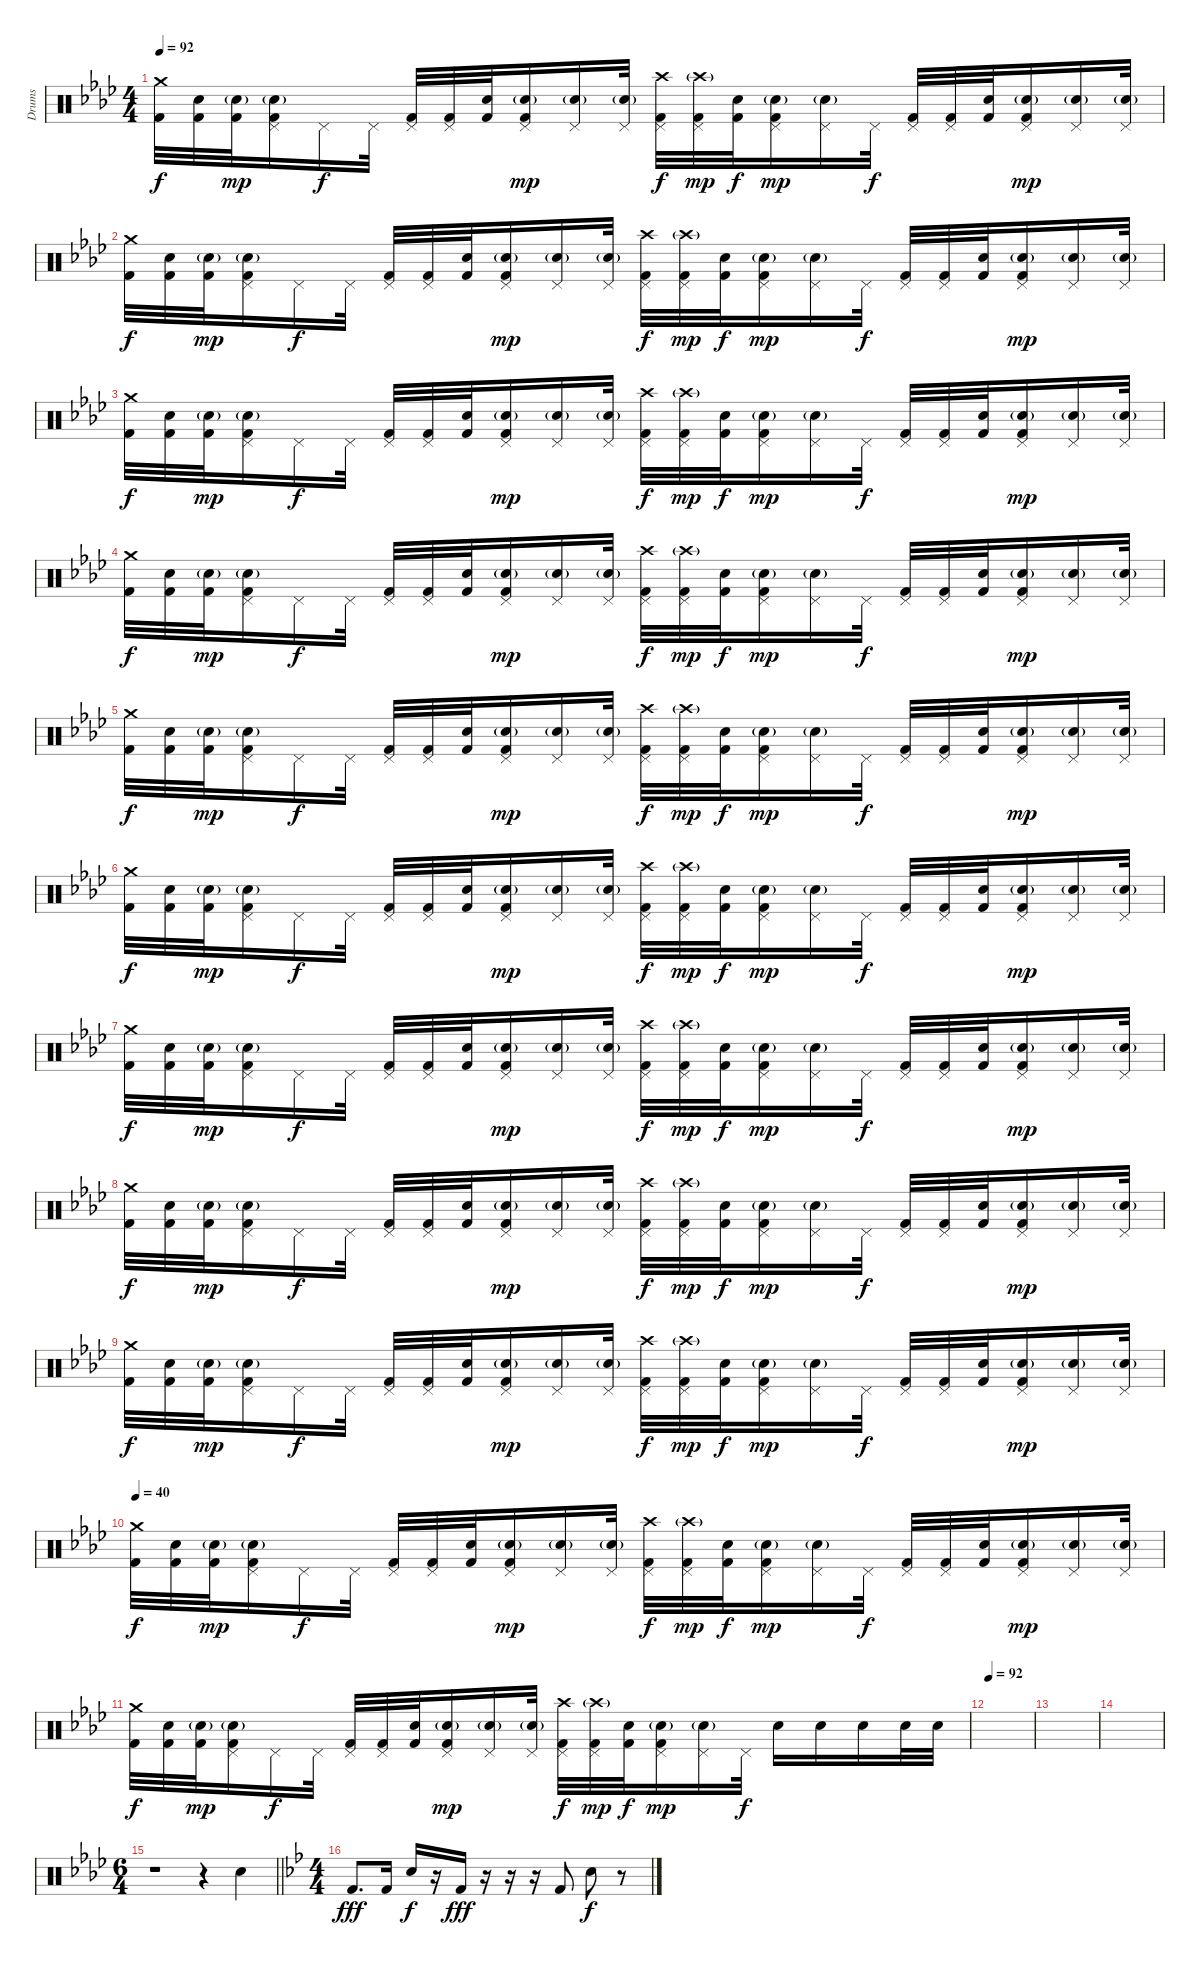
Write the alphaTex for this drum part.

\track ("Drums" "Drums") {instrument percussion}
\staff {score}
\articulation defaults
\ts (4 4)
\tempo 92
\clef neutral
\ks fminor
("Crash medium (hit)" "Kick (hit) 2").32{dy f} ("Snare (hit) 2" "Kick (hit) 2").32 ("Snare (hit) 2"{g} "Kick (hit) 2").32{dy mp} ("Pedal Hi-Hat (hit)" "Snare (hit) 2"{g} "Kick (hit) 2").16 "Pedal Hi-Hat (hit)".16{dy f} "Pedal Hi-Hat (hit)".32 ("Pedal Hi-Hat (hit)" "Kick (hit) 2").32 ("Pedal Hi-Hat (hit)" "Kick (hit) 2").32 ("Snare (hit) 2" "Kick (hit) 2").32 ("Pedal Hi-Hat (hit)" "Snare (hit) 2"{g} "Kick (hit) 2").16{dy mp} ("Pedal Hi-Hat (hit)" "Snare (hit) 2"{g}).16 ("Pedal Hi-Hat (hit)" "Snare (hit) 2"{g}).32 ("Crash high (hit)" "Pedal Hi-Hat (hit)" "Kick (hit) 2").32{dy f} ("Crash high (hit)"{g} "Pedal Hi-Hat (hit)" "Kick (hit) 2").32{dy mp} ("Snare (hit) 2" "Kick (hit) 2").32{dy f} ("Pedal Hi-Hat (hit)" "Snare (hit) 2"{g} "Kick (hit) 2").16{dy mp} ("Pedal Hi-Hat (hit)" "Snare (hit) 2"{g}).16 "Pedal Hi-Hat (hit)".32{dy f} ("Pedal Hi-Hat (hit)" "Kick (hit) 2").32 ("Pedal Hi-Hat (hit)" "Kick (hit) 2").32 ("Snare (hit) 2" "Kick (hit) 2").32 ("Pedal Hi-Hat (hit)" "Snare (hit) 2"{g} "Kick (hit) 2").16{dy mp} ("Pedal Hi-Hat (hit)" "Snare (hit) 2"{g}).16 ("Pedal Hi-Hat (hit)" "Snare (hit) 2"{g}).32 |
("Crash medium (hit)" "Kick (hit) 2").32{dy f} ("Snare (hit) 2" "Kick (hit) 2").32 ("Snare (hit) 2"{g} "Kick (hit) 2").32{dy mp} ("Pedal Hi-Hat (hit)" "Snare (hit) 2"{g} "Kick (hit) 2").16 "Pedal Hi-Hat (hit)".16{dy f} "Pedal Hi-Hat (hit)".32 ("Pedal Hi-Hat (hit)" "Kick (hit) 2").32 ("Pedal Hi-Hat (hit)" "Kick (hit) 2").32 ("Snare (hit) 2" "Kick (hit) 2").32 ("Pedal Hi-Hat (hit)" "Snare (hit) 2"{g} "Kick (hit) 2").16{dy mp} ("Pedal Hi-Hat (hit)" "Snare (hit) 2"{g}).16 ("Pedal Hi-Hat (hit)" "Snare (hit) 2"{g}).32 ("Crash high (hit)" "Pedal Hi-Hat (hit)" "Kick (hit) 2").32{dy f} ("Crash high (hit)"{g} "Pedal Hi-Hat (hit)" "Kick (hit) 2").32{dy mp} ("Snare (hit) 2" "Kick (hit) 2").32{dy f} ("Pedal Hi-Hat (hit)" "Snare (hit) 2"{g} "Kick (hit) 2").16{dy mp} ("Pedal Hi-Hat (hit)" "Snare (hit) 2"{g}).16 "Pedal Hi-Hat (hit)".32{dy f} ("Pedal Hi-Hat (hit)" "Kick (hit) 2").32 ("Pedal Hi-Hat (hit)" "Kick (hit) 2").32 ("Snare (hit) 2" "Kick (hit) 2").32 ("Pedal Hi-Hat (hit)" "Snare (hit) 2"{g} "Kick (hit) 2").16{dy mp} ("Pedal Hi-Hat (hit)" "Snare (hit) 2"{g}).16 ("Pedal Hi-Hat (hit)" "Snare (hit) 2"{g}).32 |
("Crash medium (hit)" "Kick (hit) 2").32{dy f} ("Snare (hit) 2" "Kick (hit) 2").32 ("Snare (hit) 2"{g} "Kick (hit) 2").32{dy mp} ("Pedal Hi-Hat (hit)" "Snare (hit) 2"{g} "Kick (hit) 2").16 "Pedal Hi-Hat (hit)".16{dy f} "Pedal Hi-Hat (hit)".32 ("Pedal Hi-Hat (hit)" "Kick (hit) 2").32 ("Pedal Hi-Hat (hit)" "Kick (hit) 2").32 ("Snare (hit) 2" "Kick (hit) 2").32 ("Pedal Hi-Hat (hit)" "Snare (hit) 2"{g} "Kick (hit) 2").16{dy mp} ("Pedal Hi-Hat (hit)" "Snare (hit) 2"{g}).16 ("Pedal Hi-Hat (hit)" "Snare (hit) 2"{g}).32 ("Crash high (hit)" "Pedal Hi-Hat (hit)" "Kick (hit) 2").32{dy f} ("Crash high (hit)"{g} "Pedal Hi-Hat (hit)" "Kick (hit) 2").32{dy mp} ("Snare (hit) 2" "Kick (hit) 2").32{dy f} ("Pedal Hi-Hat (hit)" "Snare (hit) 2"{g} "Kick (hit) 2").16{dy mp} ("Pedal Hi-Hat (hit)" "Snare (hit) 2"{g}).16 "Pedal Hi-Hat (hit)".32{dy f} ("Pedal Hi-Hat (hit)" "Kick (hit) 2").32 ("Pedal Hi-Hat (hit)" "Kick (hit) 2").32 ("Snare (hit) 2" "Kick (hit) 2").32 ("Pedal Hi-Hat (hit)" "Snare (hit) 2"{g} "Kick (hit) 2").16{dy mp} ("Pedal Hi-Hat (hit)" "Snare (hit) 2"{g}).16 ("Pedal Hi-Hat (hit)" "Snare (hit) 2"{g}).32 |
("Crash medium (hit)" "Kick (hit) 2").32{dy f} ("Snare (hit) 2" "Kick (hit) 2").32 ("Snare (hit) 2"{g} "Kick (hit) 2").32{dy mp} ("Pedal Hi-Hat (hit)" "Snare (hit) 2"{g} "Kick (hit) 2").16 "Pedal Hi-Hat (hit)".16{dy f} "Pedal Hi-Hat (hit)".32 ("Pedal Hi-Hat (hit)" "Kick (hit) 2").32 ("Pedal Hi-Hat (hit)" "Kick (hit) 2").32 ("Snare (hit) 2" "Kick (hit) 2").32 ("Pedal Hi-Hat (hit)" "Snare (hit) 2"{g} "Kick (hit) 2").16{dy mp} ("Pedal Hi-Hat (hit)" "Snare (hit) 2"{g}).16 ("Pedal Hi-Hat (hit)" "Snare (hit) 2"{g}).32 ("Crash high (hit)" "Pedal Hi-Hat (hit)" "Kick (hit) 2").32{dy f} ("Crash high (hit)"{g} "Pedal Hi-Hat (hit)" "Kick (hit) 2").32{dy mp} ("Snare (hit) 2" "Kick (hit) 2").32{dy f} ("Pedal Hi-Hat (hit)" "Snare (hit) 2"{g} "Kick (hit) 2").16{dy mp} ("Pedal Hi-Hat (hit)" "Snare (hit) 2"{g}).16 "Pedal Hi-Hat (hit)".32{dy f} ("Pedal Hi-Hat (hit)" "Kick (hit) 2").32 ("Pedal Hi-Hat (hit)" "Kick (hit) 2").32 ("Snare (hit) 2" "Kick (hit) 2").32 ("Pedal Hi-Hat (hit)" "Snare (hit) 2"{g} "Kick (hit) 2").16{dy mp} ("Pedal Hi-Hat (hit)" "Snare (hit) 2"{g}).16 ("Pedal Hi-Hat (hit)" "Snare (hit) 2"{g}).32 |
("Crash medium (hit)" "Kick (hit) 2").32{dy f} ("Snare (hit) 2" "Kick (hit) 2").32 ("Snare (hit) 2"{g} "Kick (hit) 2").32{dy mp} ("Pedal Hi-Hat (hit)" "Snare (hit) 2"{g} "Kick (hit) 2").16 "Pedal Hi-Hat (hit)".16{dy f} "Pedal Hi-Hat (hit)".32 ("Pedal Hi-Hat (hit)" "Kick (hit) 2").32 ("Pedal Hi-Hat (hit)" "Kick (hit) 2").32 ("Snare (hit) 2" "Kick (hit) 2").32 ("Pedal Hi-Hat (hit)" "Snare (hit) 2"{g} "Kick (hit) 2").16{dy mp} ("Pedal Hi-Hat (hit)" "Snare (hit) 2"{g}).16 ("Pedal Hi-Hat (hit)" "Snare (hit) 2"{g}).32 ("Crash high (hit)" "Pedal Hi-Hat (hit)" "Kick (hit) 2").32{dy f} ("Crash high (hit)"{g} "Pedal Hi-Hat (hit)" "Kick (hit) 2").32{dy mp} ("Snare (hit) 2" "Kick (hit) 2").32{dy f} ("Pedal Hi-Hat (hit)" "Snare (hit) 2"{g} "Kick (hit) 2").16{dy mp} ("Pedal Hi-Hat (hit)" "Snare (hit) 2"{g}).16 "Pedal Hi-Hat (hit)".32{dy f} ("Pedal Hi-Hat (hit)" "Kick (hit) 2").32 ("Pedal Hi-Hat (hit)" "Kick (hit) 2").32 ("Snare (hit) 2" "Kick (hit) 2").32 ("Pedal Hi-Hat (hit)" "Snare (hit) 2"{g} "Kick (hit) 2").16{dy mp} ("Pedal Hi-Hat (hit)" "Snare (hit) 2"{g}).16 ("Pedal Hi-Hat (hit)" "Snare (hit) 2"{g}).32 |
("Crash medium (hit)" "Kick (hit) 2").32{dy f} ("Snare (hit) 2" "Kick (hit) 2").32 ("Snare (hit) 2"{g} "Kick (hit) 2").32{dy mp} ("Pedal Hi-Hat (hit)" "Snare (hit) 2"{g} "Kick (hit) 2").16 "Pedal Hi-Hat (hit)".16{dy f} "Pedal Hi-Hat (hit)".32 ("Pedal Hi-Hat (hit)" "Kick (hit) 2").32 ("Pedal Hi-Hat (hit)" "Kick (hit) 2").32 ("Snare (hit) 2" "Kick (hit) 2").32 ("Pedal Hi-Hat (hit)" "Snare (hit) 2"{g} "Kick (hit) 2").16{dy mp} ("Pedal Hi-Hat (hit)" "Snare (hit) 2"{g}).16 ("Pedal Hi-Hat (hit)" "Snare (hit) 2"{g}).32 ("Crash high (hit)" "Pedal Hi-Hat (hit)" "Kick (hit) 2").32{dy f} ("Crash high (hit)"{g} "Pedal Hi-Hat (hit)" "Kick (hit) 2").32{dy mp} ("Snare (hit) 2" "Kick (hit) 2").32{dy f} ("Pedal Hi-Hat (hit)" "Snare (hit) 2"{g} "Kick (hit) 2").16{dy mp} ("Pedal Hi-Hat (hit)" "Snare (hit) 2"{g}).16 "Pedal Hi-Hat (hit)".32{dy f} ("Pedal Hi-Hat (hit)" "Kick (hit) 2").32 ("Pedal Hi-Hat (hit)" "Kick (hit) 2").32 ("Snare (hit) 2" "Kick (hit) 2").32 ("Pedal Hi-Hat (hit)" "Snare (hit) 2"{g} "Kick (hit) 2").16{dy mp} ("Pedal Hi-Hat (hit)" "Snare (hit) 2"{g}).16 ("Pedal Hi-Hat (hit)" "Snare (hit) 2"{g}).32 |
("Crash medium (hit)" "Kick (hit) 2").32{dy f} ("Snare (hit) 2" "Kick (hit) 2").32 ("Snare (hit) 2"{g} "Kick (hit) 2").32{dy mp} ("Pedal Hi-Hat (hit)" "Snare (hit) 2"{g} "Kick (hit) 2").16 "Pedal Hi-Hat (hit)".16{dy f} "Pedal Hi-Hat (hit)".32 ("Pedal Hi-Hat (hit)" "Kick (hit) 2").32 ("Pedal Hi-Hat (hit)" "Kick (hit) 2").32 ("Snare (hit) 2" "Kick (hit) 2").32 ("Pedal Hi-Hat (hit)" "Snare (hit) 2"{g} "Kick (hit) 2").16{dy mp} ("Pedal Hi-Hat (hit)" "Snare (hit) 2"{g}).16 ("Pedal Hi-Hat (hit)" "Snare (hit) 2"{g}).32 ("Crash high (hit)" "Pedal Hi-Hat (hit)" "Kick (hit) 2").32{dy f} ("Crash high (hit)"{g} "Pedal Hi-Hat (hit)" "Kick (hit) 2").32{dy mp} ("Snare (hit) 2" "Kick (hit) 2").32{dy f} ("Pedal Hi-Hat (hit)" "Snare (hit) 2"{g} "Kick (hit) 2").16{dy mp} ("Pedal Hi-Hat (hit)" "Snare (hit) 2"{g}).16 "Pedal Hi-Hat (hit)".32{dy f} ("Pedal Hi-Hat (hit)" "Kick (hit) 2").32 ("Pedal Hi-Hat (hit)" "Kick (hit) 2").32 ("Snare (hit) 2" "Kick (hit) 2").32 ("Pedal Hi-Hat (hit)" "Snare (hit) 2"{g} "Kick (hit) 2").16{dy mp} ("Pedal Hi-Hat (hit)" "Snare (hit) 2"{g}).16 ("Pedal Hi-Hat (hit)" "Snare (hit) 2"{g}).32 |
("Crash medium (hit)" "Kick (hit) 2").32{dy f} ("Snare (hit) 2" "Kick (hit) 2").32 ("Snare (hit) 2"{g} "Kick (hit) 2").32{dy mp} ("Pedal Hi-Hat (hit)" "Snare (hit) 2"{g} "Kick (hit) 2").16 "Pedal Hi-Hat (hit)".16{dy f} "Pedal Hi-Hat (hit)".32 ("Pedal Hi-Hat (hit)" "Kick (hit) 2").32 ("Pedal Hi-Hat (hit)" "Kick (hit) 2").32 ("Snare (hit) 2" "Kick (hit) 2").32 ("Pedal Hi-Hat (hit)" "Snare (hit) 2"{g} "Kick (hit) 2").16{dy mp} ("Pedal Hi-Hat (hit)" "Snare (hit) 2"{g}).16 ("Pedal Hi-Hat (hit)" "Snare (hit) 2"{g}).32 ("Crash high (hit)" "Pedal Hi-Hat (hit)" "Kick (hit) 2").32{dy f} ("Crash high (hit)"{g} "Pedal Hi-Hat (hit)" "Kick (hit) 2").32{dy mp} ("Snare (hit) 2" "Kick (hit) 2").32{dy f} ("Pedal Hi-Hat (hit)" "Snare (hit) 2"{g} "Kick (hit) 2").16{dy mp} ("Pedal Hi-Hat (hit)" "Snare (hit) 2"{g}).16 "Pedal Hi-Hat (hit)".32{dy f} ("Pedal Hi-Hat (hit)" "Kick (hit) 2").32 ("Pedal Hi-Hat (hit)" "Kick (hit) 2").32 ("Snare (hit) 2" "Kick (hit) 2").32 ("Pedal Hi-Hat (hit)" "Snare (hit) 2"{g} "Kick (hit) 2").16{dy mp} ("Pedal Hi-Hat (hit)" "Snare (hit) 2"{g}).16 ("Pedal Hi-Hat (hit)" "Snare (hit) 2"{g}).32 |
("Crash medium (hit)" "Kick (hit) 2").32{dy f} ("Snare (hit) 2" "Kick (hit) 2").32 ("Snare (hit) 2"{g} "Kick (hit) 2").32{dy mp} ("Pedal Hi-Hat (hit)" "Snare (hit) 2"{g} "Kick (hit) 2").16 "Pedal Hi-Hat (hit)".16{dy f} "Pedal Hi-Hat (hit)".32 ("Pedal Hi-Hat (hit)" "Kick (hit) 2").32 ("Pedal Hi-Hat (hit)" "Kick (hit) 2").32 ("Snare (hit) 2" "Kick (hit) 2").32 ("Pedal Hi-Hat (hit)" "Snare (hit) 2"{g} "Kick (hit) 2").16{dy mp} ("Pedal Hi-Hat (hit)" "Snare (hit) 2"{g}).16 ("Pedal Hi-Hat (hit)" "Snare (hit) 2"{g}).32 ("Crash high (hit)" "Pedal Hi-Hat (hit)" "Kick (hit) 2").32{dy f} ("Crash high (hit)"{g} "Pedal Hi-Hat (hit)" "Kick (hit) 2").32{dy mp} ("Snare (hit) 2" "Kick (hit) 2").32{dy f} ("Pedal Hi-Hat (hit)" "Snare (hit) 2"{g} "Kick (hit) 2").16{dy mp} ("Pedal Hi-Hat (hit)" "Snare (hit) 2"{g}).16 "Pedal Hi-Hat (hit)".32{dy f} ("Pedal Hi-Hat (hit)" "Kick (hit) 2").32 ("Pedal Hi-Hat (hit)" "Kick (hit) 2").32 ("Snare (hit) 2" "Kick (hit) 2").32 ("Pedal Hi-Hat (hit)" "Snare (hit) 2"{g} "Kick (hit) 2").16{dy mp} ("Pedal Hi-Hat (hit)" "Snare (hit) 2"{g}).16 ("Pedal Hi-Hat (hit)" "Snare (hit) 2"{g}).32 |
\tempo 40
("Crash medium (hit)" "Kick (hit) 2").32{dy f} ("Snare (hit) 2" "Kick (hit) 2").32 ("Snare (hit) 2"{g} "Kick (hit) 2").32{dy mp} ("Pedal Hi-Hat (hit)" "Snare (hit) 2"{g} "Kick (hit) 2").16 "Pedal Hi-Hat (hit)".16{dy f} "Pedal Hi-Hat (hit)".32 ("Pedal Hi-Hat (hit)" "Kick (hit) 2").32 ("Pedal Hi-Hat (hit)" "Kick (hit) 2").32 ("Snare (hit) 2" "Kick (hit) 2").32 ("Pedal Hi-Hat (hit)" "Snare (hit) 2"{g} "Kick (hit) 2").16{dy mp} ("Pedal Hi-Hat (hit)" "Snare (hit) 2"{g}).16 ("Pedal Hi-Hat (hit)" "Snare (hit) 2"{g}).32 ("Crash high (hit)" "Pedal Hi-Hat (hit)" "Kick (hit) 2").32{dy f} ("Crash high (hit)"{g} "Pedal Hi-Hat (hit)" "Kick (hit) 2").32{dy mp} ("Snare (hit) 2" "Kick (hit) 2").32{dy f} ("Pedal Hi-Hat (hit)" "Snare (hit) 2"{g} "Kick (hit) 2").16{dy mp} ("Pedal Hi-Hat (hit)" "Snare (hit) 2"{g}).16 "Pedal Hi-Hat (hit)".32{dy f} ("Pedal Hi-Hat (hit)" "Kick (hit) 2").32 ("Pedal Hi-Hat (hit)" "Kick (hit) 2").32 ("Snare (hit) 2" "Kick (hit) 2").32 ("Pedal Hi-Hat (hit)" "Snare (hit) 2"{g} "Kick (hit) 2").16{dy mp} ("Pedal Hi-Hat (hit)" "Snare (hit) 2"{g}).16 ("Pedal Hi-Hat (hit)" "Snare (hit) 2"{g}).32 |
("Crash medium (hit)" "Kick (hit) 2").32{dy f} ("Snare (hit) 2" "Kick (hit) 2").32 ("Snare (hit) 2"{g} "Kick (hit) 2").32{dy mp} ("Pedal Hi-Hat (hit)" "Snare (hit) 2"{g} "Kick (hit) 2").16 "Pedal Hi-Hat (hit)".16{dy f} "Pedal Hi-Hat (hit)".32 ("Pedal Hi-Hat (hit)" "Kick (hit) 2").32 ("Pedal Hi-Hat (hit)" "Kick (hit) 2").32 ("Snare (hit) 2" "Kick (hit) 2").32 ("Pedal Hi-Hat (hit)" "Snare (hit) 2"{g} "Kick (hit) 2").16{dy mp} ("Pedal Hi-Hat (hit)" "Snare (hit) 2"{g}).16 ("Pedal Hi-Hat (hit)" "Snare (hit) 2"{g}).32 ("Crash high (hit)" "Pedal Hi-Hat (hit)" "Kick (hit) 2").32{dy f} ("Crash high (hit)"{g} "Pedal Hi-Hat (hit)" "Kick (hit) 2").32{dy mp} ("Snare (hit) 2" "Kick (hit) 2").32{dy f} ("Pedal Hi-Hat (hit)" "Snare (hit) 2"{g} "Kick (hit) 2").16{dy mp} ("Pedal Hi-Hat (hit)" "Snare (hit) 2"{g}).16 "Pedal Hi-Hat (hit)".32{dy f} "Snare (hit) 2".16 "Snare (hit) 2".16 "Snare (hit) 2".16 "Snare (hit) 2".32 "Snare (hit) 2".32 |
\tempo 92
|
|
|
\ts (6 4)
\barLineRight lightlight
r.1 r.4 "Hand Clap (hit)".4 |
\ts (4 4)
\ks bb "Kick (hit) 2".8{d dy fff} "Kick (hit) 2".16 "Hand Clap (hit)".16{dy f}
r.16 "Kick (hit) 2".16{dy fff} r.16 r.16 r.16 "Kick (hit) 2".8 "Hand Clap (hit)".8{dy f} r.8
